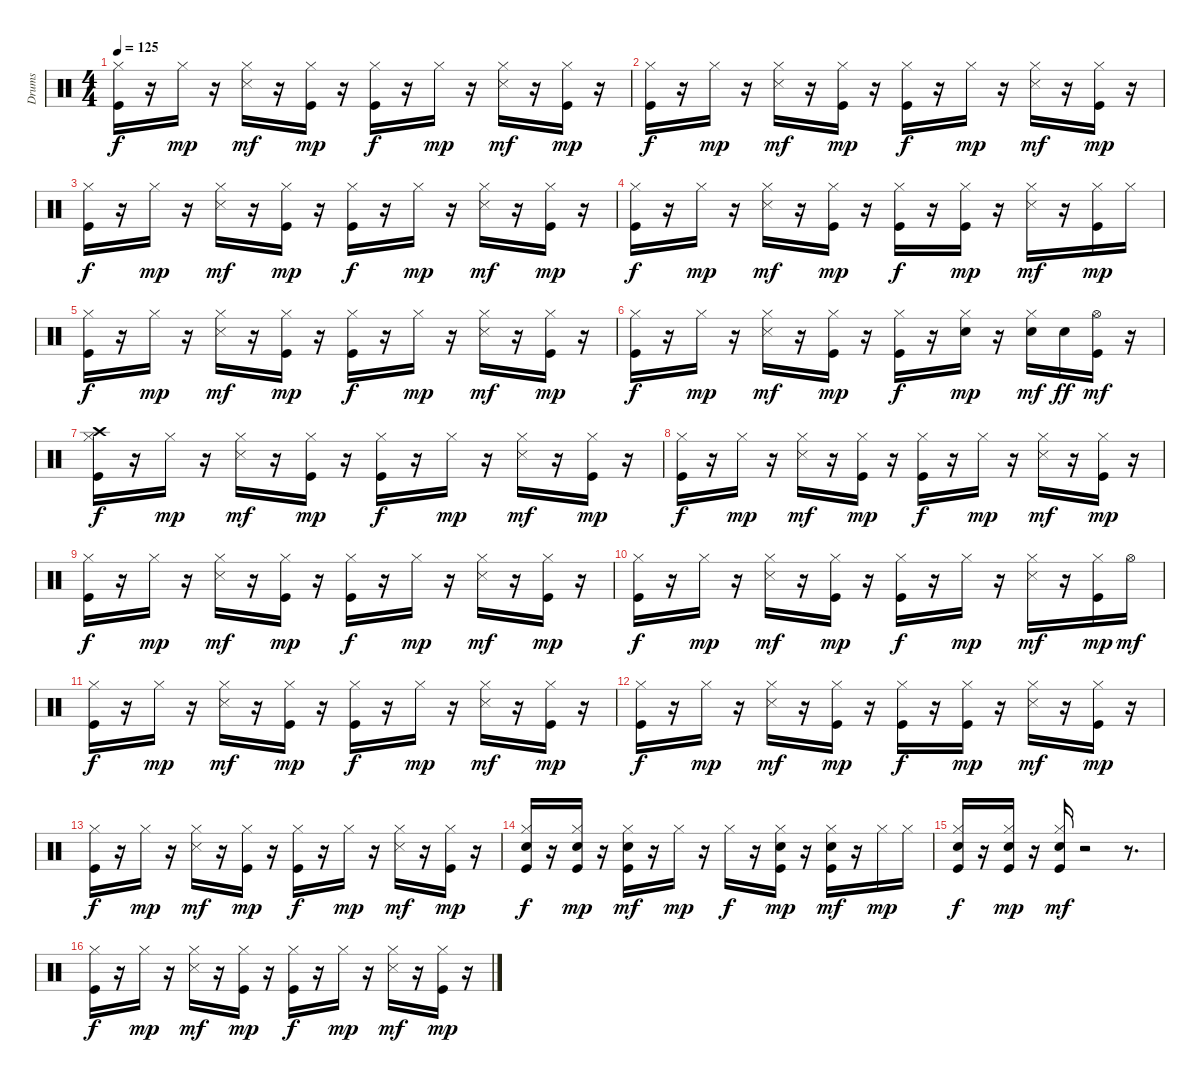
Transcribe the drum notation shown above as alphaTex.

\track ("Drums   " "Drums   ") {solo instrument percussion}
\staff {score}
\articulation defaults
\ts (4 4)
\tempo 125
\clef neutral
\ks c
("Kick (hit)" "Hi-Hat (closed)").16{dy f} r.16 "Hi-Hat (closed)".16{dy mp} r.16 ("Hi-Hat (closed)" "Snare (side stick) 3").16{dy mf} r.16 ("Kick (hit)" "Hi-Hat (closed)").16{dy mp} r.16 ("Kick (hit)" "Hi-Hat (closed)").16{dy f} r.16 "Hi-Hat (closed)".16{dy mp} r.16 ("Hi-Hat (closed)" "Snare (side stick) 3").16{dy mf} r.16 ("Kick (hit)" "Hi-Hat (closed)").16{dy mp} r.16 |
("Kick (hit)" "Hi-Hat (closed)").16{dy f} r.16 "Hi-Hat (closed)".16{dy mp} r.16 ("Hi-Hat (closed)" "Snare (side stick) 3").16{dy mf} r.16 ("Kick (hit)" "Hi-Hat (closed)").16{dy mp} r.16 ("Kick (hit)" "Hi-Hat (closed)").16{dy f} r.16 "Hi-Hat (closed)".16{dy mp} r.16 ("Hi-Hat (closed)" "Snare (side stick) 3").16{dy mf} r.16 ("Kick (hit)" "Hi-Hat (closed)").16{dy mp} r.16 |
("Kick (hit)" "Hi-Hat (closed)").16{dy f} r.16 "Hi-Hat (closed)".16{dy mp} r.16 ("Hi-Hat (closed)" "Snare (side stick) 3").16{dy mf} r.16 ("Kick (hit)" "Hi-Hat (closed)").16{dy mp} r.16 ("Kick (hit)" "Hi-Hat (closed)").16{dy f} r.16 "Hi-Hat (closed)".16{dy mp} r.16 ("Hi-Hat (closed)" "Snare (side stick) 3").16{dy mf} r.16 ("Kick (hit)" "Hi-Hat (closed)").16{dy mp} r.16 |
("Kick (hit)" "Hi-Hat (closed)").16{dy f} r.16 "Hi-Hat (closed)".16{dy mp} r.16 ("Hi-Hat (closed)" "Snare (side stick) 3").16{dy mf} r.16 ("Kick (hit)" "Hi-Hat (closed)").16{dy mp} r.16 ("Kick (hit)" "Hi-Hat (closed)").16{dy f} r.16 ("Kick (hit)" "Hi-Hat (closed)").16{dy mp} r.16 ("Hi-Hat (closed)" "Snare (side stick) 3").16{dy mf} r.16 ("Kick (hit)" "Hi-Hat (closed)").16{dy mp} "Hi-Hat (closed)".16 |
("Kick (hit)" "Hi-Hat (closed)").16{dy f} r.16 "Hi-Hat (closed)".16{dy mp} r.16 ("Hi-Hat (closed)" "Snare (side stick) 3").16{dy mf} r.16 ("Kick (hit)" "Hi-Hat (closed)").16{dy mp} r.16 ("Kick (hit)" "Hi-Hat (closed)").16{dy f} r.16 "Hi-Hat (closed)".16{dy mp} r.16 ("Hi-Hat (closed)" "Snare (side stick) 3").16{dy mf} r.16 ("Kick (hit)" "Hi-Hat (closed)").16{dy mp} r.16 |
("Kick (hit)" "Hi-Hat (closed)").16{dy f} r.16 "Hi-Hat (closed)".16{dy mp} r.16 ("Hi-Hat (closed)" "Snare (side stick) 3").16{dy mf} r.16 ("Kick (hit)" "Hi-Hat (closed)").16{dy mp} r.16 ("Kick (hit)" "Hi-Hat (closed)").16{dy f} r.16 ("Snare (hit) 2" "Hi-Hat (closed)").16{dy mp} r.16 ("Snare (hit) 2" "Hi-Hat (closed)").16{dy mf} "Snare (hit) 2".16{dy ff} ("Kick (hit)" "Hi-Hat (open)").16{dy mf} r.16 |
("Kick (hit)" "Hi-Hat (closed)" "Crash high (hit)").16{dy f} r.16 "Hi-Hat (closed)".16{dy mp} r.16 ("Hi-Hat (closed)" "Snare (side stick) 3").16{dy mf} r.16 ("Kick (hit)" "Hi-Hat (closed)").16{dy mp} r.16 ("Kick (hit)" "Hi-Hat (closed)").16{dy f} r.16 "Hi-Hat (closed)".16{dy mp} r.16 ("Hi-Hat (closed)" "Snare (side stick) 3").16{dy mf} r.16 ("Kick (hit)" "Hi-Hat (closed)").16{dy mp} r.16 |
("Kick (hit)" "Hi-Hat (closed)").16{dy f} r.16 "Hi-Hat (closed)".16{dy mp} r.16 ("Hi-Hat (closed)" "Snare (side stick) 3").16{dy mf} r.16 ("Kick (hit)" "Hi-Hat (closed)").16{dy mp} r.16 ("Kick (hit)" "Hi-Hat (closed)").16{dy f} r.16 "Hi-Hat (closed)".16{dy mp} r.16 ("Hi-Hat (closed)" "Snare (side stick) 3").16{dy mf} r.16 ("Kick (hit)" "Hi-Hat (closed)").16{dy mp} r.16 |
("Kick (hit)" "Hi-Hat (closed)").16{dy f} r.16 "Hi-Hat (closed)".16{dy mp} r.16 ("Hi-Hat (closed)" "Snare (side stick) 3").16{dy mf} r.16 ("Kick (hit)" "Hi-Hat (closed)").16{dy mp} r.16 ("Kick (hit)" "Hi-Hat (closed)").16{dy f} r.16 "Hi-Hat (closed)".16{dy mp} r.16 ("Hi-Hat (closed)" "Snare (side stick) 3").16{dy mf} r.16 ("Kick (hit)" "Hi-Hat (closed)").16{dy mp} r.16 |
("Kick (hit)" "Hi-Hat (closed)").16{dy f} r.16 "Hi-Hat (closed)".16{dy mp} r.16 ("Hi-Hat (closed)" "Snare (side stick) 3").16{dy mf} r.16 ("Kick (hit)" "Hi-Hat (closed)").16{dy mp} r.16 ("Kick (hit)" "Hi-Hat (closed)").16{dy f} r.16 "Hi-Hat (closed)".16{dy mp} r.16 ("Hi-Hat (closed)" "Snare (side stick) 3").16{dy mf} r.16 ("Kick (hit)" "Hi-Hat (closed)").16{dy mp} "Hi-Hat (open)".16{dy mf} |
("Kick (hit)" "Hi-Hat (closed)").16{dy f} r.16 "Hi-Hat (closed)".16{dy mp} r.16 ("Hi-Hat (closed)" "Snare (side stick) 3").16{dy mf} r.16 ("Kick (hit)" "Hi-Hat (closed)").16{dy mp} r.16 ("Kick (hit)" "Hi-Hat (closed)").16{dy f} r.16 "Hi-Hat (closed)".16{dy mp} r.16 ("Hi-Hat (closed)" "Snare (side stick) 3").16{dy mf} r.16 ("Kick (hit)" "Hi-Hat (closed)").16{dy mp} r.16 |
("Kick (hit)" "Hi-Hat (closed)").16{dy f} r.16 "Hi-Hat (closed)".16{dy mp} r.16 ("Hi-Hat (closed)" "Snare (side stick) 3").16{dy mf} r.16 ("Kick (hit)" "Hi-Hat (closed)").16{dy mp} r.16 ("Kick (hit)" "Hi-Hat (closed)").16{dy f} r.16 ("Kick (hit)" "Hi-Hat (closed)").16{dy mp} r.16 ("Hi-Hat (closed)" "Snare (side stick) 3").16{dy mf} r.16 ("Kick (hit)" "Hi-Hat (closed)").16{dy mp} r.16 |
("Kick (hit)" "Hi-Hat (closed)").16{dy f} r.16 "Hi-Hat (closed)".16{dy mp} r.16 ("Hi-Hat (closed)" "Snare (side stick) 3").16{dy mf} r.16 ("Kick (hit)" "Hi-Hat (closed)").16{dy mp} r.16 ("Kick (hit)" "Hi-Hat (closed)").16{dy f} r.16 "Hi-Hat (closed)".16{dy mp} r.16 ("Hi-Hat (closed)" "Snare (side stick) 3").16{dy mf} r.16 ("Kick (hit)" "Hi-Hat (closed)").16{dy mp} r.16 |
("Kick (hit)" "Hi-Hat (closed)" "Snare (hit) 2").16{dy f} r.16 ("Snare (hit) 2" "Hi-Hat (closed)" "Kick (hit)").16{dy mp} r.16 ("Hi-Hat (closed)" "Kick (hit)" "Snare (hit) 2").16{dy mf} r.16 "Hi-Hat (closed)".16{dy mp} r.16 "Hi-Hat (closed)".16{dy f} r.16 ("Hi-Hat (closed)" "Kick (hit)" "Snare (hit) 2").16{dy mp} r.16 ("Hi-Hat (closed)" "Kick (hit)" "Snare (hit) 2").16{dy mf} r.16 "Hi-Hat (closed)".16{dy mp} "Hi-Hat (closed)".16 |
("Hi-Hat (closed)" "Kick (hit)" "Snare (hit) 2").16{dy f} r.16 ("Hi-Hat (closed)" "Kick (hit)" "Snare (hit) 2").16{dy mp} r.16 ("Hi-Hat (closed)" "Kick (hit)" "Snare (hit) 2").16{dy mf} r.2 r.8{d} |
("Kick (hit)" "Hi-Hat (closed)").16{dy f} r.16 "Hi-Hat (closed)".16{dy mp} r.16 ("Hi-Hat (closed)" "Snare (side stick) 3").16{dy mf} r.16 ("Kick (hit)" "Hi-Hat (closed)").16{dy mp} r.16 ("Kick (hit)" "Hi-Hat (closed)").16{dy f} r.16 "Hi-Hat (closed)".16{dy mp} r.16 ("Hi-Hat (closed)" "Snare (side stick) 3").16{dy mf} r.16 ("Kick (hit)" "Hi-Hat (closed)").16{dy mp} r.16
